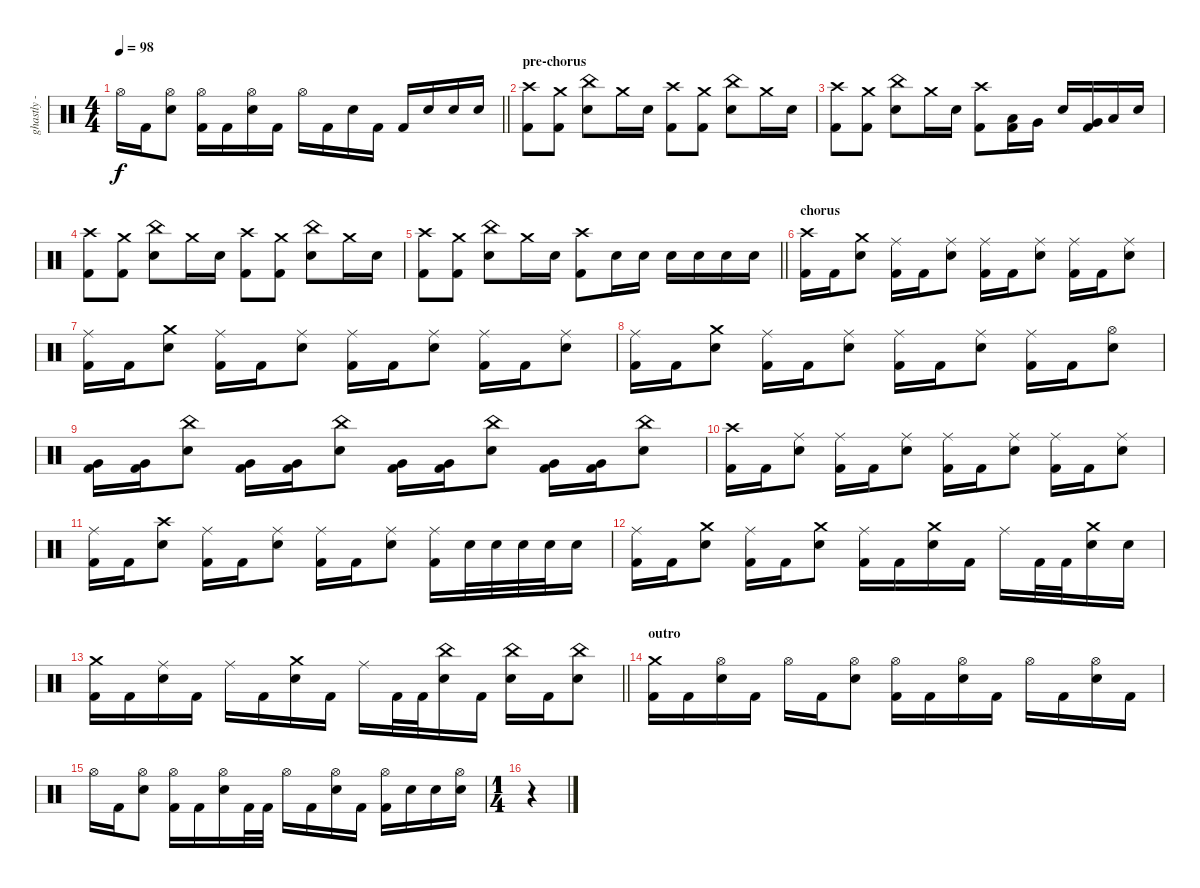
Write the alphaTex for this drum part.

\track ("ghastly - drums" "ghastly - ") {instrument percussion}
\staff {score}
\articulation defaults
\ts (4 4)
\tempo 98
\clef neutral
\barLineRight lightlight
\ks c "Hi-Hat (open)".16{dy f} "Kick (hit) 2".16
("Hi-Hat (open)" "Electric Snare (hit)").8 ("Hi-Hat (open)" "Kick (hit) 2").16 "Kick (hit) 2".16 ("Hi-Hat (open)" "Electric Snare (hit)").16 "Kick (hit) 2".16 "Hi-Hat (open)".16 "Kick (hit) 2".16 "Electric Snare (hit)".16 "Kick (hit) 2".16 "Kick (hit) 2".16 "Electric Snare (hit)".16 "Electric Snare (hit)".16 "Electric Snare (hit)".16 |
\section ("" "pre-chorus")
("Crash high (hit)" "Kick (hit) 2").8 ("Crash medium (hit)" "Kick (hit) 2").8 ("China (hit)" "Electric Snare (hit)").8 "Crash medium (hit)".16 "Electric Snare (hit)".16 ("Crash high (hit)" "Kick (hit) 2").8 ("Crash medium (hit)" "Kick (hit) 2").8 ("China (hit)" "Electric Snare (hit)").8 "Crash medium (hit)".16 "Electric Snare (hit)".16 |
("Crash high (hit)" "Kick (hit) 2").8 ("Crash medium (hit)" "Kick (hit) 2").8 ("China (hit)" "Electric Snare (hit)").8 "Crash medium (hit)".16 "Electric Snare (hit)".16 ("Crash high (hit)" "Kick (hit) 2").8 ("Low Tom (hit)" "Kick (hit) 2").16 "Very Low Tom (hit)".16 "Electric Snare (hit)".16 ("Very Low Tom (hit)" "Kick (hit) 2").16 "Low Floor Tom (hit)".16 "Electric Snare (hit)".16 |
("Crash high (hit)" "Kick (hit) 2").8 ("Crash medium (hit)" "Kick (hit) 2").8 ("China (hit)" "Electric Snare (hit)").8 "Crash medium (hit)".16 "Electric Snare (hit)".16 ("Crash high (hit)" "Kick (hit) 2").8 ("Crash medium (hit)" "Kick (hit) 2").8 ("China (hit)" "Electric Snare (hit)").8 "Crash medium (hit)".16 "Electric Snare (hit)".16 |
\barLineRight lightlight
("Crash high (hit)" "Kick (hit) 2").8 ("Crash medium (hit)" "Kick (hit) 2").8 ("China (hit)" "Electric Snare (hit)").8 "Crash medium (hit)".16 "Electric Snare (hit)".16 ("Crash high (hit)" "Kick (hit) 2").8 "Electric Snare (hit)".16 "Electric Snare (hit)".16 "Electric Snare (hit)".16 "Electric Snare (hit)".16 "Electric Snare (hit)".16 "Electric Snare (hit)".16 |
\section ("" "chorus")
("Crash high (hit)" "Kick (hit) 2").16 "Kick (hit) 2".16 ("Crash medium (hit)" "Electric Snare (hit)").8 ("Ride (middle)" "Kick (hit) 2").16 "Kick (hit) 2".16 ("Ride (middle)" "Electric Snare (hit)").8 ("Ride (middle)" "Kick (hit) 2").16 "Kick (hit) 2".16 ("Ride (middle)" "Electric Snare (hit)").8 ("Ride (middle)" "Kick (hit) 2").16 "Kick (hit) 2".16 ("Ride (middle)" "Electric Snare (hit)").8 |
("Ride (middle)" "Kick (hit) 2").16 "Kick (hit) 2".16 ("Crash medium (hit)" "Electric Snare (hit)").8 ("Ride (middle)" "Kick (hit) 2").16 "Kick (hit) 2".16 ("Ride (middle)" "Electric Snare (hit)").8 ("Ride (middle)" "Kick (hit) 2").16 "Kick (hit) 2".16 ("Ride (middle)" "Electric Snare (hit)").8 ("Ride (middle)" "Kick (hit) 2").16 "Kick (hit) 2".16 ("Ride (middle)" "Electric Snare (hit)").8 |
("Ride (middle)" "Kick (hit) 2").16 "Kick (hit) 2".16 ("Crash medium (hit)" "Electric Snare (hit)").8 ("Ride (middle)" "Kick (hit) 2").16 "Kick (hit) 2".16 ("Ride (middle)" "Electric Snare (hit)").8 ("Ride (middle)" "Kick (hit) 2").16 "Kick (hit) 2".16 ("Ride (middle)" "Electric Snare (hit)").8 ("Ride (middle)" "Kick (hit) 2").16 "Kick (hit) 2".16 ("Hi-Hat (open)" "Electric Snare (hit)").8 |
("Very Low Tom (hit)" "Kick (hit) 2").16 ("Very Low Tom (hit)" "Kick (hit) 2").16 ("China (hit)" "Electric Snare (hit)").8 ("Very Low Tom (hit)" "Kick (hit) 2").16 ("Very Low Tom (hit)" "Kick (hit) 2").16 ("China (hit)" "Electric Snare (hit)").8 ("Very Low Tom (hit)" "Kick (hit) 2").16 ("Very Low Tom (hit)" "Kick (hit) 2").16 ("China (hit)" "Electric Snare (hit)").8 ("Very Low Tom (hit)" "Kick (hit) 2").16 ("Very Low Tom (hit)" "Kick (hit) 2").16 ("China (hit)" "Electric Snare (hit)").8 |
("Crash high (hit)" "Kick (hit) 2").16 "Kick (hit) 2".16 ("Ride (middle)" "Electric Snare (hit)").8 ("Ride (middle)" "Kick (hit) 2").16 "Kick (hit) 2".16 ("Ride (middle)" "Electric Snare (hit)").8 ("Ride (middle)" "Kick (hit) 2").16 "Kick (hit) 2".16 ("Ride (middle)" "Electric Snare (hit)").8 ("Ride (middle)" "Kick (hit) 2").16 "Kick (hit) 2".16 ("Ride (middle)" "Electric Snare (hit)").8 |
("Ride (middle)" "Kick (hit) 2").16 "Kick (hit) 2".16 ("Crash high (hit)" "Electric Snare (hit)").8 ("Ride (middle)" "Kick (hit) 2").16 "Kick (hit) 2".16 ("Ride (middle)" "Electric Snare (hit)").8 ("Ride (middle)" "Kick (hit) 2").16 "Kick (hit) 2".16 ("Ride (middle)" "Electric Snare (hit)").8 ("Ride (middle)" "Kick (hit) 2").16 "Electric Snare (hit)".32 "Electric Snare (hit)".32 "Electric Snare (hit)".32 "Electric Snare (hit)".32 "Electric Snare (hit)".16 |
("Ride (middle)" "Kick (hit) 2").16 "Kick (hit) 2".16 ("Crash medium (hit)" "Electric Snare (hit)").8 ("Ride (middle)" "Kick (hit) 2").16 "Kick (hit) 2".16 ("Crash medium (hit)" "Electric Snare (hit)").8 ("Ride (middle)" "Kick (hit) 2").16 "Kick (hit) 2".16 ("Crash medium (hit)" "Electric Snare (hit)").16 "Kick (hit) 2".16 "Ride (middle)".16 "Kick (hit) 2".32 "Kick (hit) 2".32 ("Crash medium (hit)" "Electric Snare (hit)").16 "Electric Snare (hit)".16 |
\barLineRight lightlight
("Crash medium (hit)" "Kick (hit) 2").16 "Kick (hit) 2".16 ("Ride (middle)" "Electric Snare (hit)").16 "Kick (hit) 2".16 "Ride (middle)".16 "Kick (hit) 2".16 ("Crash medium (hit)" "Electric Snare (hit)").16 "Kick (hit) 2".16 "Ride (middle)".16 "Kick (hit) 2".32 "Kick (hit) 2".32 ("China (hit)" "Electric Snare (hit)").16 "Kick (hit) 2".16 ("China (hit)" "Electric Snare (hit)").16 "Kick (hit) 2".16 ("China (hit)" "Electric Snare (hit)").8 |
\section ("" "outro")
("Crash medium (hit)" "Kick (hit) 2").16 "Kick (hit) 2".16 ("Hi-Hat (open)" "Electric Snare (hit)").16 "Kick (hit) 2".16 "Hi-Hat (open)".16 "Kick (hit) 2".16 ("Hi-Hat (open)" "Electric Snare (hit)").8 ("Hi-Hat (open)" "Kick (hit) 2").16 "Kick (hit) 2".16 ("Hi-Hat (open)" "Electric Snare (hit)").16 "Kick (hit) 2".16 "Hi-Hat (open)".16 "Kick (hit) 2".16 ("Hi-Hat (open)" "Electric Snare (hit)").16 "Kick (hit) 2".16 |
"Hi-Hat (open)".16 "Kick (hit) 2".16 ("Hi-Hat (open)" "Electric Snare (hit)").8 ("Hi-Hat (open)" "Kick (hit) 2").16 "Kick (hit) 2".16 ("Hi-Hat (open)" "Electric Snare (hit)").16 "Kick (hit) 2".32 "Kick (hit) 2".32 "Hi-Hat (open)".16 "Kick (hit) 2".16 ("Hi-Hat (open)" "Electric Snare (hit)").16 "Kick (hit) 2".16 ("Hi-Hat (open)" "Kick (hit) 2").16 "Electric Snare (hit)".16 "Electric Snare (hit)".16 ("Hi-Hat (open)" "Electric Snare (hit)").16 |
\ts (1 4)
r.4
